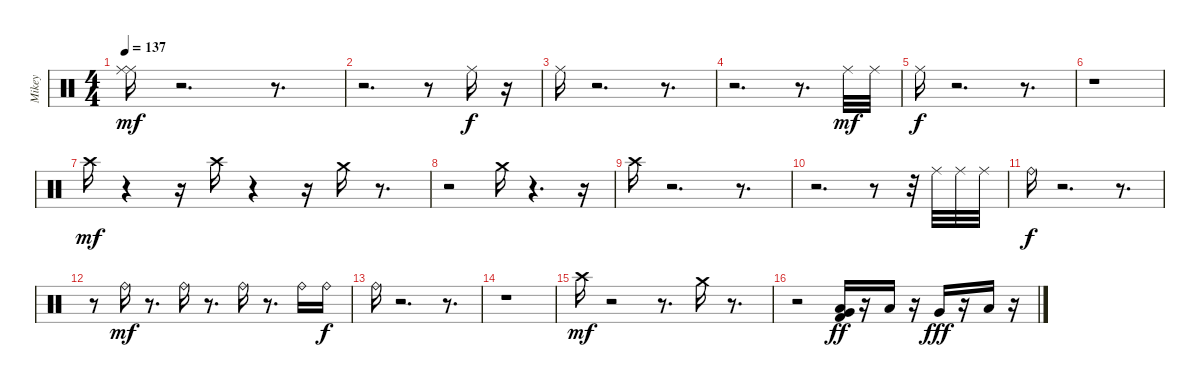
\track ("Mikey" "Mikey") {instrument percussion}
\staff {score}
\articulation defaults
\ts (4 4)
\tempo 137
\clef neutral
\ks c
("Ride (middle)" "Ride (middle)").16{dy mf} r.2{d} r.8{d} |
r.2{d} r.8 "Ride (middle)".16{dy f} r.16 |
"Ride (middle)".16 r.2{d} r.8{d} |
r.2{d} r.8{d} "Ride (middle)".32{dy mf} "Ride (middle)".32 |
"Ride (middle)".16{dy f} r.2{d} r.8{d} |
r.1 |
"Crash high (hit)".16{dy mf} r.4 r.16 "Crash high (hit)".16 r.4 r.16 "Crash medium (hit)".16 r.8{d} |
r.2 "Crash medium (hit)".16 r.4{d} r.16 |
"Crash high (hit)".16 r.2{d} r.8{d} |
r.2{d} r.8 r.32 "Ride (middle)".32 "Ride (middle)".32 "Ride (middle)".32 |
"Ride (bell)".16{dy f} r.2{d} r.8{d} |
r.8 "Ride (bell)".16{dy mf} r.8{d} "Ride (bell)".16 r.8{d} "Ride (bell)".16 r.8{d} "Ride (bell)".16 "Ride (bell)".16{dy f} |
"Ride (bell)".16 r.2{d} r.8{d} |
r.1 |
"Crash high (hit)".16{dy mf} r.2 r.8{d} "Crash medium (hit)".16 r.8{d} |
r.2 ("Low Floor Tom (hit)" "Very Low Tom (hit)" "Kick (hit) 2").16{dy ff} r.16 "Low Floor Tom (hit)".16 r.16 "Very Low Tom (hit)".16{dy fff} r.16 "Low Floor Tom (hit)".16 r.16
